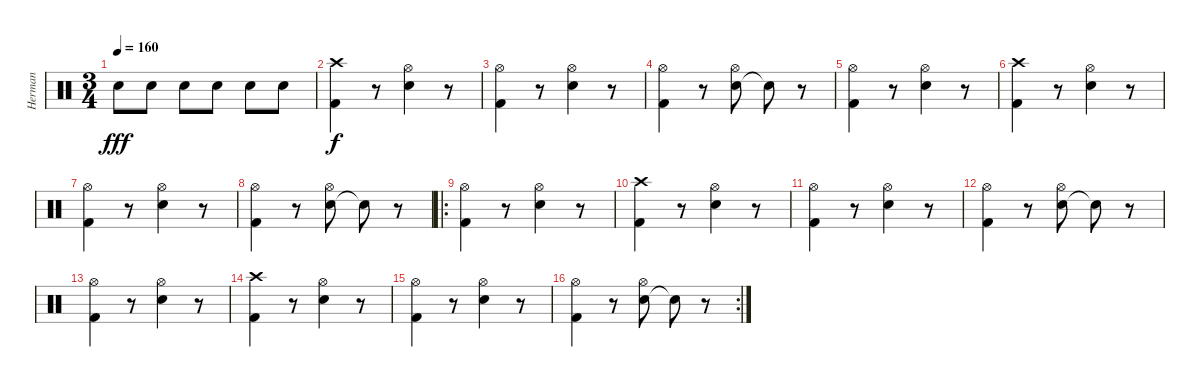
\track ("Herman" "Herman") {instrument percussion}
\staff {score}
\articulation defaults
\ts (3 4)
\tempo 160
\clef neutral
\ks c "Electric Snare (hit)".8{dy fff} "Electric Snare (hit)".8 "Electric Snare (hit)".8 "Electric Snare (hit)".8 "Electric Snare (hit)".8 "Electric Snare (hit)".8
|
("Kick (hit) 2" "Crash high (hit)").4{dy f} r.8 ("Electric Snare (hit)" "Hi-Hat (open)").4 r.8 |
("Kick (hit) 2" "Hi-Hat (open)").4 r.8 ("Electric Snare (hit)" "Hi-Hat (open)").4 r.8 |
("Kick (hit) 2" "Hi-Hat (open)").4 r.8 ("Electric Snare (hit)" "Hi-Hat (open)").8 "Snare (hit)"{t}.8 r.8 |
("Kick (hit) 2" "Hi-Hat (open)").4 r.8 ("Electric Snare (hit)" "Hi-Hat (open)").4 r.8 |
("Kick (hit) 2" "Crash high (hit)").4 r.8 ("Electric Snare (hit)" "Hi-Hat (open)").4 r.8 |
("Kick (hit) 2" "Hi-Hat (open)").4 r.8 ("Electric Snare (hit)" "Hi-Hat (open)").4 r.8 |
("Kick (hit) 2" "Hi-Hat (open)").4 r.8 ("Electric Snare (hit)" "Hi-Hat (open)").8 "Snare (hit)"{t}.8 r.8 |
\ro
("Kick (hit) 2" "Hi-Hat (open)").4 r.8 ("Electric Snare (hit)" "Hi-Hat (open)").4 r.8 |
("Kick (hit) 2" "Crash high (hit)").4 r.8 ("Electric Snare (hit)" "Hi-Hat (open)").4 r.8 |
("Kick (hit) 2" "Hi-Hat (open)").4 r.8 ("Electric Snare (hit)" "Hi-Hat (open)").4 r.8 |
("Kick (hit) 2" "Hi-Hat (open)").4 r.8 ("Electric Snare (hit)" "Hi-Hat (open)").8 "Snare (hit)"{t}.8 r.8 |
("Kick (hit) 2" "Hi-Hat (open)").4 r.8 ("Electric Snare (hit)" "Hi-Hat (open)").4 r.8 |
("Kick (hit) 2" "Crash high (hit)").4 r.8 ("Electric Snare (hit)" "Hi-Hat (open)").4 r.8 |
("Kick (hit) 2" "Hi-Hat (open)").4 r.8 ("Electric Snare (hit)" "Hi-Hat (open)").4 r.8 |
\rc 2
("Kick (hit) 2" "Hi-Hat (open)").4 r.8 ("Electric Snare (hit)" "Hi-Hat (open)").8 "Snare (hit)"{t}.8 r.8
